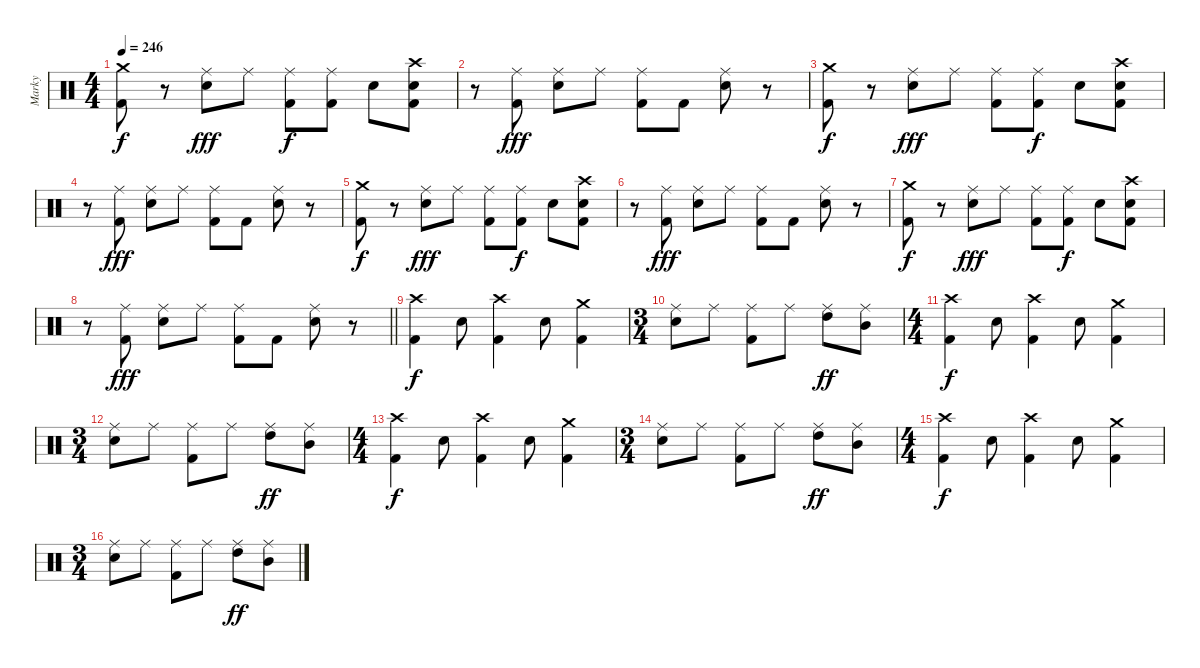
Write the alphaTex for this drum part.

\track ("Marky" "Marky") {instrument percussion}
\staff {score}
\articulation defaults
\ts (4 4)
\tempo 246
\clef neutral
\ks c
("Crash medium (hit)" "Kick (hit) 2").8{dy f} r.8 ("Ride (middle)" "Snare (hit) 2").8{dy fff} "Ride (middle)".8 ("Ride (middle)" "Kick (hit) 2").8{dy f} ("Ride (middle)" "Kick (hit) 2").8 "Snare (hit) 2".8 ("Crash high (hit)" "Snare (hit) 2" "Kick (hit) 2").8 |
r.8 ("Ride (middle)" "Kick (hit) 2").8{dy fff} ("Ride (middle)" "Snare (hit) 2").8 "Ride (middle)".8 ("Ride (middle)" "Kick (hit) 2").8 "Kick (hit) 2".8 ("Ride (middle)" "Snare (hit) 2").8 r.8 |
("Crash medium (hit)" "Kick (hit) 2").8{dy f} r.8 ("Ride (middle)" "Snare (hit) 2").8{dy fff} "Ride (middle)".8 ("Ride (middle)" "Kick (hit) 2").8 ("Ride (middle)" "Kick (hit) 2").8{dy f} "Snare (hit) 2".8 ("Crash high (hit)" "Snare (hit) 2" "Kick (hit) 2").8 |
r.8 ("Ride (middle)" "Kick (hit) 2").8{dy fff} ("Ride (middle)" "Snare (hit) 2").8 "Ride (middle)".8 ("Ride (middle)" "Kick (hit) 2").8 "Kick (hit) 2".8 ("Ride (middle)" "Snare (hit) 2").8 r.8 |
("Crash medium (hit)" "Kick (hit) 2").8{dy f} r.8 ("Ride (middle)" "Snare (hit) 2").8{dy fff} "Ride (middle)".8 ("Ride (middle)" "Kick (hit) 2").8 ("Ride (middle)" "Kick (hit) 2").8{dy f} "Snare (hit) 2".8 ("Crash high (hit)" "Snare (hit) 2" "Kick (hit) 2").8 |
r.8 ("Ride (middle)" "Kick (hit) 2").8{dy fff} ("Ride (middle)" "Snare (hit) 2").8 "Ride (middle)".8 ("Ride (middle)" "Kick (hit) 2").8 "Kick (hit) 2".8 ("Ride (middle)" "Snare (hit) 2").8 r.8 |
("Crash medium (hit)" "Kick (hit) 2").8{dy f} r.8 ("Ride (middle)" "Snare (hit) 2").8{dy fff} "Ride (middle)".8 ("Ride (middle)" "Kick (hit) 2").8 ("Ride (middle)" "Kick (hit) 2").8{dy f} "Snare (hit) 2".8 ("Crash high (hit)" "Snare (hit) 2" "Kick (hit) 2").8 |
\barLineRight lightlight
r.8 ("Ride (middle)" "Kick (hit) 2").8{dy fff} ("Ride (middle)" "Snare (hit) 2").8 "Ride (middle)".8 ("Ride (middle)" "Kick (hit) 2").8 "Kick (hit) 2".8 ("Ride (middle)" "Snare (hit) 2").8 r.8 |
("Crash high (hit)" "Kick (hit) 2").4{dy f} "Snare (hit) 2".8 ("Crash high (hit)" "Kick (hit) 2").4 "Snare (hit) 2".8 ("Crash medium (hit)" "Kick (hit) 2").4 |
\ts (3 4)
("Ride (middle)" "Snare (hit) 2").8 "Ride (middle)".8 ("Ride (middle)" "Kick (hit) 2").8 "Ride (middle)".8 ("Ride (middle)" "High Tom (hit)").8{dy ff} ("Ride (middle)" "Mid Tom (hit)").8 |
\ts (4 4)
("Crash high (hit)" "Kick (hit) 2").4{dy f} "Snare (hit) 2".8 ("Crash high (hit)" "Kick (hit) 2").4 "Snare (hit) 2".8 ("Crash medium (hit)" "Kick (hit) 2").4 |
\ts (3 4)
("Ride (middle)" "Snare (hit) 2").8 "Ride (middle)".8 ("Ride (middle)" "Kick (hit) 2").8 "Ride (middle)".8 ("Ride (middle)" "High Tom (hit)").8{dy ff} ("Ride (middle)" "Mid Tom (hit)").8 |
\ts (4 4)
("Crash high (hit)" "Kick (hit) 2").4{dy f} "Snare (hit) 2".8 ("Crash high (hit)" "Kick (hit) 2").4 "Snare (hit) 2".8 ("Crash medium (hit)" "Kick (hit) 2").4 |
\ts (3 4)
("Ride (middle)" "Snare (hit) 2").8 "Ride (middle)".8 ("Ride (middle)" "Kick (hit) 2").8 "Ride (middle)".8 ("Ride (middle)" "High Tom (hit)").8{dy ff} ("Ride (middle)" "Mid Tom (hit)").8 |
\ts (4 4)
("Crash high (hit)" "Kick (hit) 2").4{dy f} "Snare (hit) 2".8 ("Crash high (hit)" "Kick (hit) 2").4 "Snare (hit) 2".8 ("Crash medium (hit)" "Kick (hit) 2").4 |
\ts (3 4)
("Ride (middle)" "Snare (hit) 2").8 "Ride (middle)".8 ("Ride (middle)" "Kick (hit) 2").8 "Ride (middle)".8 ("Ride (middle)" "High Tom (hit)").8{dy ff} ("Ride (middle)" "Mid Tom (hit)").8
